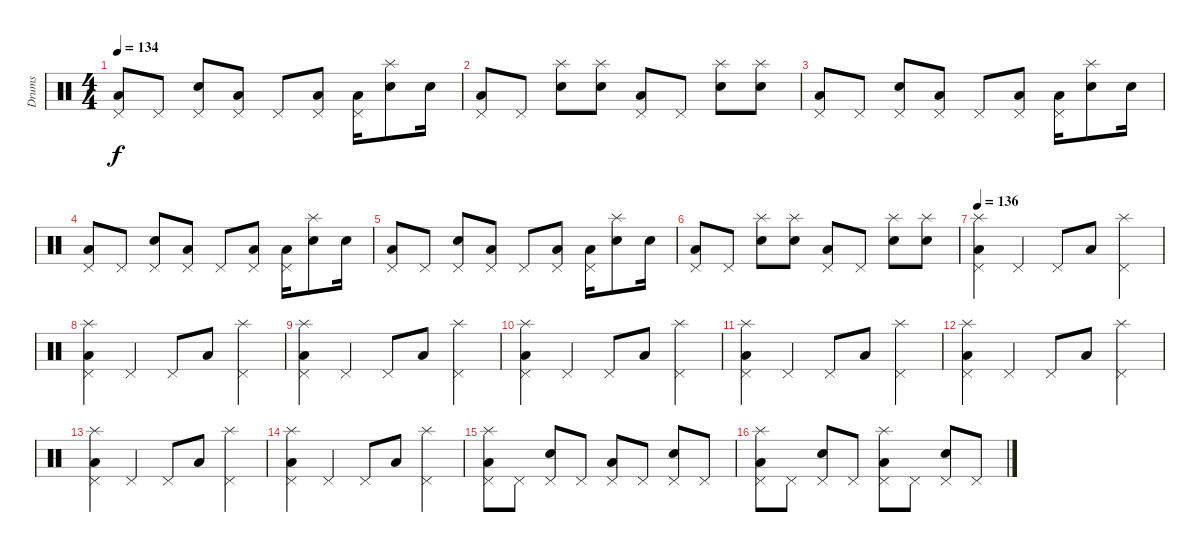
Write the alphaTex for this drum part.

\track ("Drums" "Drums") {instrument percussion}
\staff {score}
\articulation defaults
\ts (4 4)
\tempo 134
\clef neutral
\ks c
("Low Floor Tom (hit)" "Pedal Hi-Hat (hit)").8{dy f} "Pedal Hi-Hat (hit)".8 ("Electric Snare (hit)" "Pedal Hi-Hat (hit)").8 ("Low Floor Tom (hit)" "Pedal Hi-Hat (hit)").8 "Pedal Hi-Hat (hit)".8 ("Low Floor Tom (hit)" "Pedal Hi-Hat (hit)").8 ("Low Floor Tom (hit)" "Pedal Hi-Hat (hit)").16 ("Electric Snare (hit)" "Splash (hit)").8 "Electric Snare (hit)".16 |
("Low Floor Tom (hit)" "Pedal Hi-Hat (hit)").8 "Pedal Hi-Hat (hit)".8 ("Electric Snare (hit)" "Splash (hit)").8 ("Electric Snare (hit)" "Splash (hit)").8 ("Low Floor Tom (hit)" "Pedal Hi-Hat (hit)").8 "Pedal Hi-Hat (hit)".8 ("Electric Snare (hit)" "Splash (hit)").8 ("Electric Snare (hit)" "Splash (hit)").8 |
("Low Floor Tom (hit)" "Pedal Hi-Hat (hit)").8 "Pedal Hi-Hat (hit)".8 ("Electric Snare (hit)" "Pedal Hi-Hat (hit)").8 ("Low Floor Tom (hit)" "Pedal Hi-Hat (hit)").8 "Pedal Hi-Hat (hit)".8 ("Low Floor Tom (hit)" "Pedal Hi-Hat (hit)").8 ("Low Floor Tom (hit)" "Pedal Hi-Hat (hit)").16 ("Electric Snare (hit)" "Splash (hit)").8 "Electric Snare (hit)".16 |
("Low Floor Tom (hit)" "Pedal Hi-Hat (hit)").8 "Pedal Hi-Hat (hit)".8 ("Electric Snare (hit)" "Pedal Hi-Hat (hit)").8 ("Low Floor Tom (hit)" "Pedal Hi-Hat (hit)").8 "Pedal Hi-Hat (hit)".8 ("Low Floor Tom (hit)" "Pedal Hi-Hat (hit)").8 ("Low Floor Tom (hit)" "Pedal Hi-Hat (hit)").16 ("Electric Snare (hit)" "Splash (hit)").8 "Electric Snare (hit)".16 |
("Low Floor Tom (hit)" "Pedal Hi-Hat (hit)").8 "Pedal Hi-Hat (hit)".8 ("Electric Snare (hit)" "Pedal Hi-Hat (hit)").8 ("Low Floor Tom (hit)" "Pedal Hi-Hat (hit)").8 "Pedal Hi-Hat (hit)".8 ("Low Floor Tom (hit)" "Pedal Hi-Hat (hit)").8 ("Low Floor Tom (hit)" "Pedal Hi-Hat (hit)").16 ("Electric Snare (hit)" "Splash (hit)").8 "Electric Snare (hit)".16 |
("Low Floor Tom (hit)" "Pedal Hi-Hat (hit)").8 "Pedal Hi-Hat (hit)".8 ("Electric Snare (hit)" "Splash (hit)").8 ("Electric Snare (hit)" "Splash (hit)").8 ("Low Floor Tom (hit)" "Pedal Hi-Hat (hit)").8 "Pedal Hi-Hat (hit)".8 ("Electric Snare (hit)" "Splash (hit)").8 ("Electric Snare (hit)" "Splash (hit)").8 |
\tempo 136
("Low Floor Tom (hit)" "Pedal Hi-Hat (hit)" "Splash (hit)").4 "Pedal Hi-Hat (hit)".4 "Pedal Hi-Hat (hit)".8 "Low Floor Tom (hit)".8 ("Pedal Hi-Hat (hit)" "Splash (hit)").4 |
("Low Floor Tom (hit)" "Pedal Hi-Hat (hit)" "Splash (hit)").4 "Pedal Hi-Hat (hit)".4 "Pedal Hi-Hat (hit)".8 "Low Floor Tom (hit)".8 ("Pedal Hi-Hat (hit)" "Splash (hit)").4 |
("Low Floor Tom (hit)" "Pedal Hi-Hat (hit)" "Splash (hit)").4 "Pedal Hi-Hat (hit)".4 "Pedal Hi-Hat (hit)".8 "Low Floor Tom (hit)".8 ("Pedal Hi-Hat (hit)" "Splash (hit)").4 |
("Low Floor Tom (hit)" "Pedal Hi-Hat (hit)" "Splash (hit)").4 "Pedal Hi-Hat (hit)".4 "Pedal Hi-Hat (hit)".8 "Low Floor Tom (hit)".8 ("Pedal Hi-Hat (hit)" "Splash (hit)").4 |
("Low Floor Tom (hit)" "Pedal Hi-Hat (hit)" "Splash (hit)").4 "Pedal Hi-Hat (hit)".4 "Pedal Hi-Hat (hit)".8 "Low Floor Tom (hit)".8 ("Pedal Hi-Hat (hit)" "Splash (hit)").4 |
("Low Floor Tom (hit)" "Pedal Hi-Hat (hit)" "Splash (hit)").4 "Pedal Hi-Hat (hit)".4 "Pedal Hi-Hat (hit)".8 "Low Floor Tom (hit)".8 ("Pedal Hi-Hat (hit)" "Splash (hit)").4 |
("Low Floor Tom (hit)" "Pedal Hi-Hat (hit)" "Splash (hit)").4 "Pedal Hi-Hat (hit)".4 "Pedal Hi-Hat (hit)".8 "Low Floor Tom (hit)".8 ("Pedal Hi-Hat (hit)" "Splash (hit)").4 |
("Low Floor Tom (hit)" "Pedal Hi-Hat (hit)" "Splash (hit)").4 "Pedal Hi-Hat (hit)".4 "Pedal Hi-Hat (hit)".8 "Low Floor Tom (hit)".8 ("Pedal Hi-Hat (hit)" "Splash (hit)").4 |
("Low Floor Tom (hit)" "Pedal Hi-Hat (hit)" "Splash (hit)").8 "Pedal Hi-Hat (hit)".8 ("Electric Snare (hit)" "Pedal Hi-Hat (hit)").8 "Pedal Hi-Hat (hit)".8 ("Low Floor Tom (hit)" "Pedal Hi-Hat (hit)").8 "Pedal Hi-Hat (hit)".8 ("Electric Snare (hit)" "Pedal Hi-Hat (hit)").8 "Pedal Hi-Hat (hit)".8 |
("Low Floor Tom (hit)" "Pedal Hi-Hat (hit)" "Splash (hit)").8 "Pedal Hi-Hat (hit)".8 ("Electric Snare (hit)" "Pedal Hi-Hat (hit)").8 "Pedal Hi-Hat (hit)".8 ("Low Floor Tom (hit)" "Pedal Hi-Hat (hit)" "Splash (hit)").8 "Pedal Hi-Hat (hit)".8 ("Electric Snare (hit)" "Pedal Hi-Hat (hit)").8 "Pedal Hi-Hat (hit)".8
